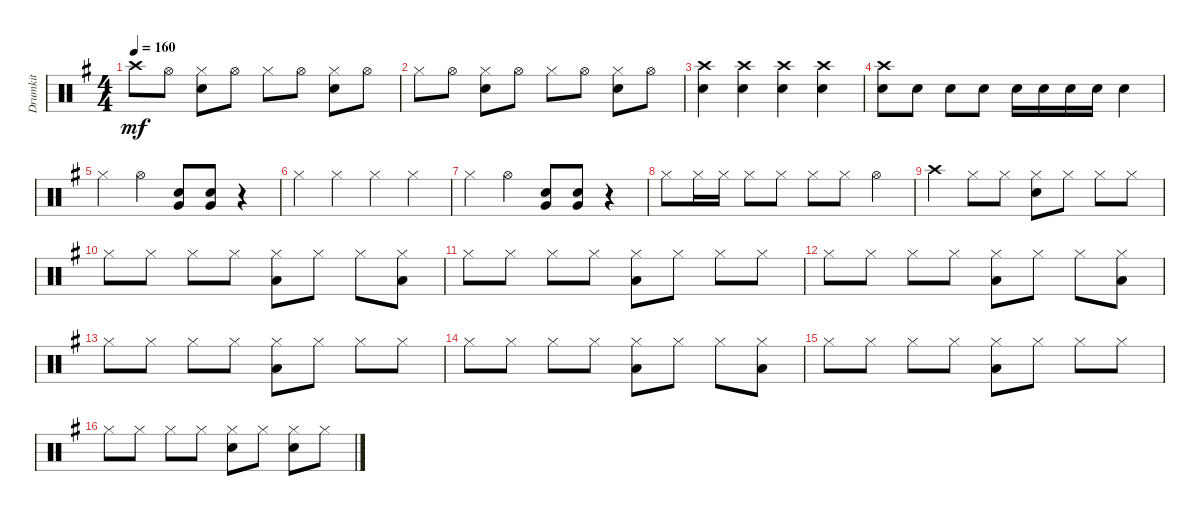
\track ("Drumkit" "Drumkit") {instrument percussion}
\staff {score}
\articulation defaults
\ts (4 4)
\tempo 160
\clef neutral
\ks g "Crash high (hit)".8{dy mf} "Hi-Hat (open)".8
("Hi-Hat (closed)" "Snare (hit) 2").8 "Hi-Hat (open)".8 "Hi-Hat (closed)".8 "Hi-Hat (open)".8 ("Hi-Hat (closed)" "Snare (hit) 2").8 "Hi-Hat (open)".8 |
"Hi-Hat (closed)".8 "Hi-Hat (open)".8 ("Hi-Hat (closed)" "Snare (hit) 2").8 "Hi-Hat (open)".8 "Hi-Hat (closed)".8 "Hi-Hat (open)".8 ("Hi-Hat (closed)" "Snare (hit) 2").8 "Hi-Hat (open)".8 |
("Crash high (hit)" "Snare (hit) 2").4 ("Crash high (hit)" "Snare (hit) 2").4 ("Crash high (hit)" "Snare (hit) 2").4 ("Crash high (hit)" "Snare (hit) 2").4 |
("Crash high (hit)" "Snare (hit) 2").8 "Snare (hit) 2".8 "Snare (hit) 2".8 "Snare (hit) 2".8 "Snare (hit) 2".16 "Snare (hit) 2".16 "Snare (hit) 2".16 "Snare (hit) 2".16 "Snare (hit) 2".4 |
"Hi-Hat (closed)".4 "Hi-Hat (open)".4 ("Snare (hit) 2" "Very Low Tom (hit)").8 ("Very Low Tom (hit)" "Snare (hit) 2").8 r.4 |
"Hi-Hat (closed)".4 "Hi-Hat (closed)".4 "Hi-Hat (closed)".4 "Hi-Hat (closed)".4 |
"Hi-Hat (closed)".4 "Hi-Hat (open)".4 ("Snare (hit) 2" "Very Low Tom (hit)").8 ("Very Low Tom (hit)" "Snare (hit) 2").8 r.4 |
"Hi-Hat (closed)".8 "Hi-Hat (closed)".16 "Hi-Hat (closed)".16 "Hi-Hat (closed)".8 "Hi-Hat (closed)".8 "Hi-Hat (closed)".8 "Hi-Hat (closed)".8 "Hi-Hat (open)".4 |
"Crash high (hit)".4 "Hi-Hat (closed)".8 "Hi-Hat (closed)".8 ("Hi-Hat (closed)" "Snare (hit) 2").8 "Hi-Hat (closed)".8 "Hi-Hat (closed)".8 "Hi-Hat (closed)".8 |
"Hi-Hat (closed)".8 "Hi-Hat (closed)".8 "Hi-Hat (closed)".8 "Hi-Hat (closed)".8 ("Hi-Hat (closed)" "Low Tom (hit)").8 "Hi-Hat (closed)".8 "Hi-Hat (closed)".8 ("Hi-Hat (closed)" "Low Tom (hit)").8 |
"Hi-Hat (closed)".8 "Hi-Hat (closed)".8 "Hi-Hat (closed)".8 "Hi-Hat (closed)".8 ("Hi-Hat (closed)" "Low Tom (hit)").8 "Hi-Hat (closed)".8 "Hi-Hat (closed)".8 "Hi-Hat (closed)".8 |
"Hi-Hat (closed)".8 "Hi-Hat (closed)".8 "Hi-Hat (closed)".8 "Hi-Hat (closed)".8 ("Hi-Hat (closed)" "Low Tom (hit)").8 "Hi-Hat (closed)".8 "Hi-Hat (closed)".8 ("Hi-Hat (closed)" "Low Tom (hit)").8 |
"Hi-Hat (closed)".8 "Hi-Hat (closed)".8 "Hi-Hat (closed)".8 "Hi-Hat (closed)".8 ("Hi-Hat (closed)" "Low Tom (hit)").8 "Hi-Hat (closed)".8 "Hi-Hat (closed)".8 "Hi-Hat (closed)".8 |
"Hi-Hat (closed)".8 "Hi-Hat (closed)".8 "Hi-Hat (closed)".8 "Hi-Hat (closed)".8 ("Hi-Hat (closed)" "Low Tom (hit)").8 "Hi-Hat (closed)".8 "Hi-Hat (closed)".8 ("Hi-Hat (closed)" "Low Tom (hit)").8 |
"Hi-Hat (closed)".8 "Hi-Hat (closed)".8 "Hi-Hat (closed)".8 "Hi-Hat (closed)".8 ("Hi-Hat (closed)" "Low Tom (hit)").8 "Hi-Hat (closed)".8 "Hi-Hat (closed)".8 "Hi-Hat (closed)".8 |
"Hi-Hat (closed)".8 "Hi-Hat (closed)".8 "Hi-Hat (closed)".8 "Hi-Hat (closed)".8 ("Hi-Hat (closed)" "Snare (hit) 2").8 "Hi-Hat (closed)".8 ("Hi-Hat (closed)" "Snare (hit) 2").8 "Hi-Hat (closed)".8
